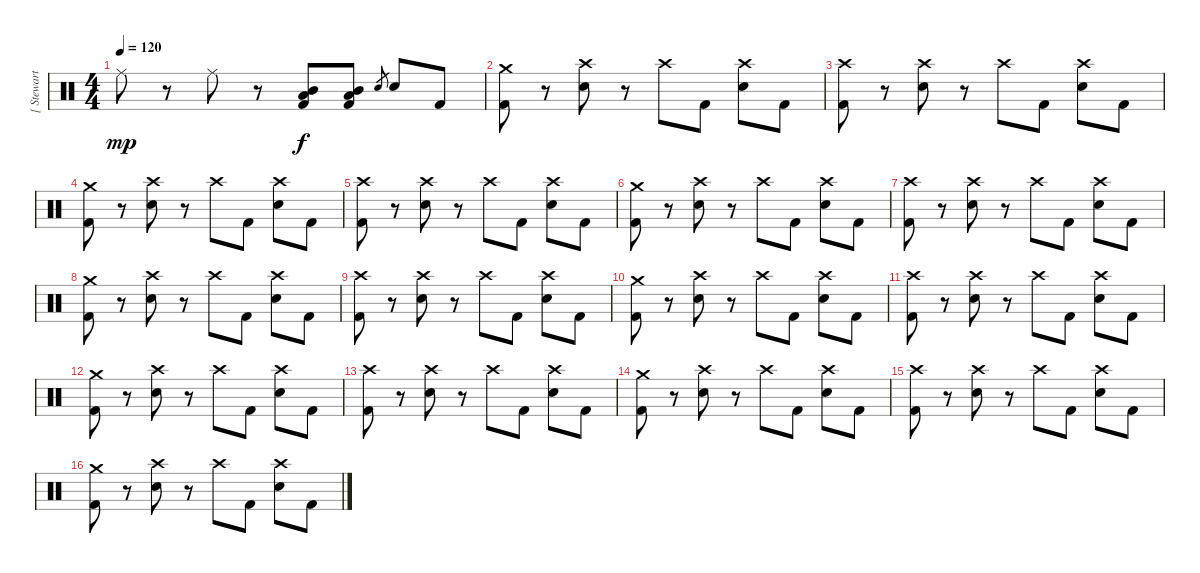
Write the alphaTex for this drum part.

\track ("[ Stewart ] " "[ Stewart ") {instrument percussion}
\staff {score}
\articulation defaults
\ts (4 4)
\tempo 120
\clef neutral
\ks c "Ride (middle)".8{dy mp}
r.8 "Ride (middle)".8 r.8 ("Mid Tom (hit)" "Low Tom (hit)" "Kick (hit) 2").8{dy f} ("Mid Tom (hit)" "Low Tom (hit)" "Kick (hit) 2").8 "Electric Snare (hit)".8{gr} "Electric Snare (hit)".8 "Kick (hit) 2".8 |
("Kick (hit) 2" "Crash medium (hit)").8 r.8 ("Electric Snare (hit)" "Crash high (hit)").8 r.8 "Crash high (hit)".8 "Kick (hit) 2".8 ("Electric Snare (hit)" "Crash high (hit)").8 "Kick (hit) 2".8 |
("Kick (hit) 2" "Crash high (hit)").8 r.8 ("Electric Snare (hit)" "Crash high (hit)").8 r.8 "Crash high (hit)".8 "Kick (hit) 2".8 ("Electric Snare (hit)" "Crash high (hit)").8 "Kick (hit) 2".8 |
("Kick (hit) 2" "Crash medium (hit)").8 r.8 ("Electric Snare (hit)" "Crash high (hit)").8 r.8 "Crash high (hit)".8 "Kick (hit) 2".8 ("Electric Snare (hit)" "Crash high (hit)").8 "Kick (hit) 2".8 |
("Kick (hit) 2" "Crash high (hit)").8 r.8 ("Electric Snare (hit)" "Crash high (hit)").8 r.8 "Crash high (hit)".8 "Kick (hit) 2".8 ("Electric Snare (hit)" "Crash high (hit)").8 "Kick (hit) 2".8 |
("Kick (hit) 2" "Crash medium (hit)").8 r.8 ("Electric Snare (hit)" "Crash high (hit)").8 r.8 "Crash high (hit)".8 "Kick (hit) 2".8 ("Electric Snare (hit)" "Crash high (hit)").8 "Kick (hit) 2".8 |
("Kick (hit) 2" "Crash high (hit)").8 r.8 ("Electric Snare (hit)" "Crash high (hit)").8 r.8 "Crash high (hit)".8 "Kick (hit) 2".8 ("Electric Snare (hit)" "Crash high (hit)").8 "Kick (hit) 2".8 |
("Kick (hit) 2" "Crash medium (hit)").8 r.8 ("Electric Snare (hit)" "Crash high (hit)").8 r.8 "Crash high (hit)".8 "Kick (hit) 2".8 ("Electric Snare (hit)" "Crash high (hit)").8 "Kick (hit) 2".8 |
("Kick (hit) 2" "Crash high (hit)").8 r.8 ("Electric Snare (hit)" "Crash high (hit)").8 r.8 "Crash high (hit)".8 "Kick (hit) 2".8 ("Electric Snare (hit)" "Crash high (hit)").8 "Kick (hit) 2".8 |
("Kick (hit) 2" "Crash medium (hit)").8 r.8 ("Electric Snare (hit)" "Crash high (hit)").8 r.8 "Crash high (hit)".8 "Kick (hit) 2".8 ("Electric Snare (hit)" "Crash high (hit)").8 "Kick (hit) 2".8 |
("Kick (hit) 2" "Crash high (hit)").8 r.8 ("Electric Snare (hit)" "Crash high (hit)").8 r.8 "Crash high (hit)".8 "Kick (hit) 2".8 ("Electric Snare (hit)" "Crash high (hit)").8 "Kick (hit) 2".8 |
("Kick (hit) 2" "Crash medium (hit)").8 r.8 ("Electric Snare (hit)" "Crash high (hit)").8 r.8 "Crash high (hit)".8 "Kick (hit) 2".8 ("Electric Snare (hit)" "Crash high (hit)").8 "Kick (hit) 2".8 |
("Kick (hit) 2" "Crash high (hit)").8 r.8 ("Electric Snare (hit)" "Crash high (hit)").8 r.8 "Crash high (hit)".8 "Kick (hit) 2".8 ("Electric Snare (hit)" "Crash high (hit)").8 "Kick (hit) 2".8 |
("Kick (hit) 2" "Crash medium (hit)").8 r.8 ("Electric Snare (hit)" "Crash high (hit)").8 r.8 "Crash high (hit)".8 "Kick (hit) 2".8 ("Electric Snare (hit)" "Crash high (hit)").8 "Kick (hit) 2".8 |
("Kick (hit) 2" "Crash high (hit)").8 r.8 ("Electric Snare (hit)" "Crash high (hit)").8 r.8 "Crash high (hit)".8 "Kick (hit) 2".8 ("Electric Snare (hit)" "Crash high (hit)").8 "Kick (hit) 2".8 |
("Kick (hit) 2" "Crash medium (hit)").8 r.8 ("Electric Snare (hit)" "Crash high (hit)").8 r.8 "Crash high (hit)".8 "Kick (hit) 2".8 ("Electric Snare (hit)" "Crash high (hit)").8 "Kick (hit) 2".8
